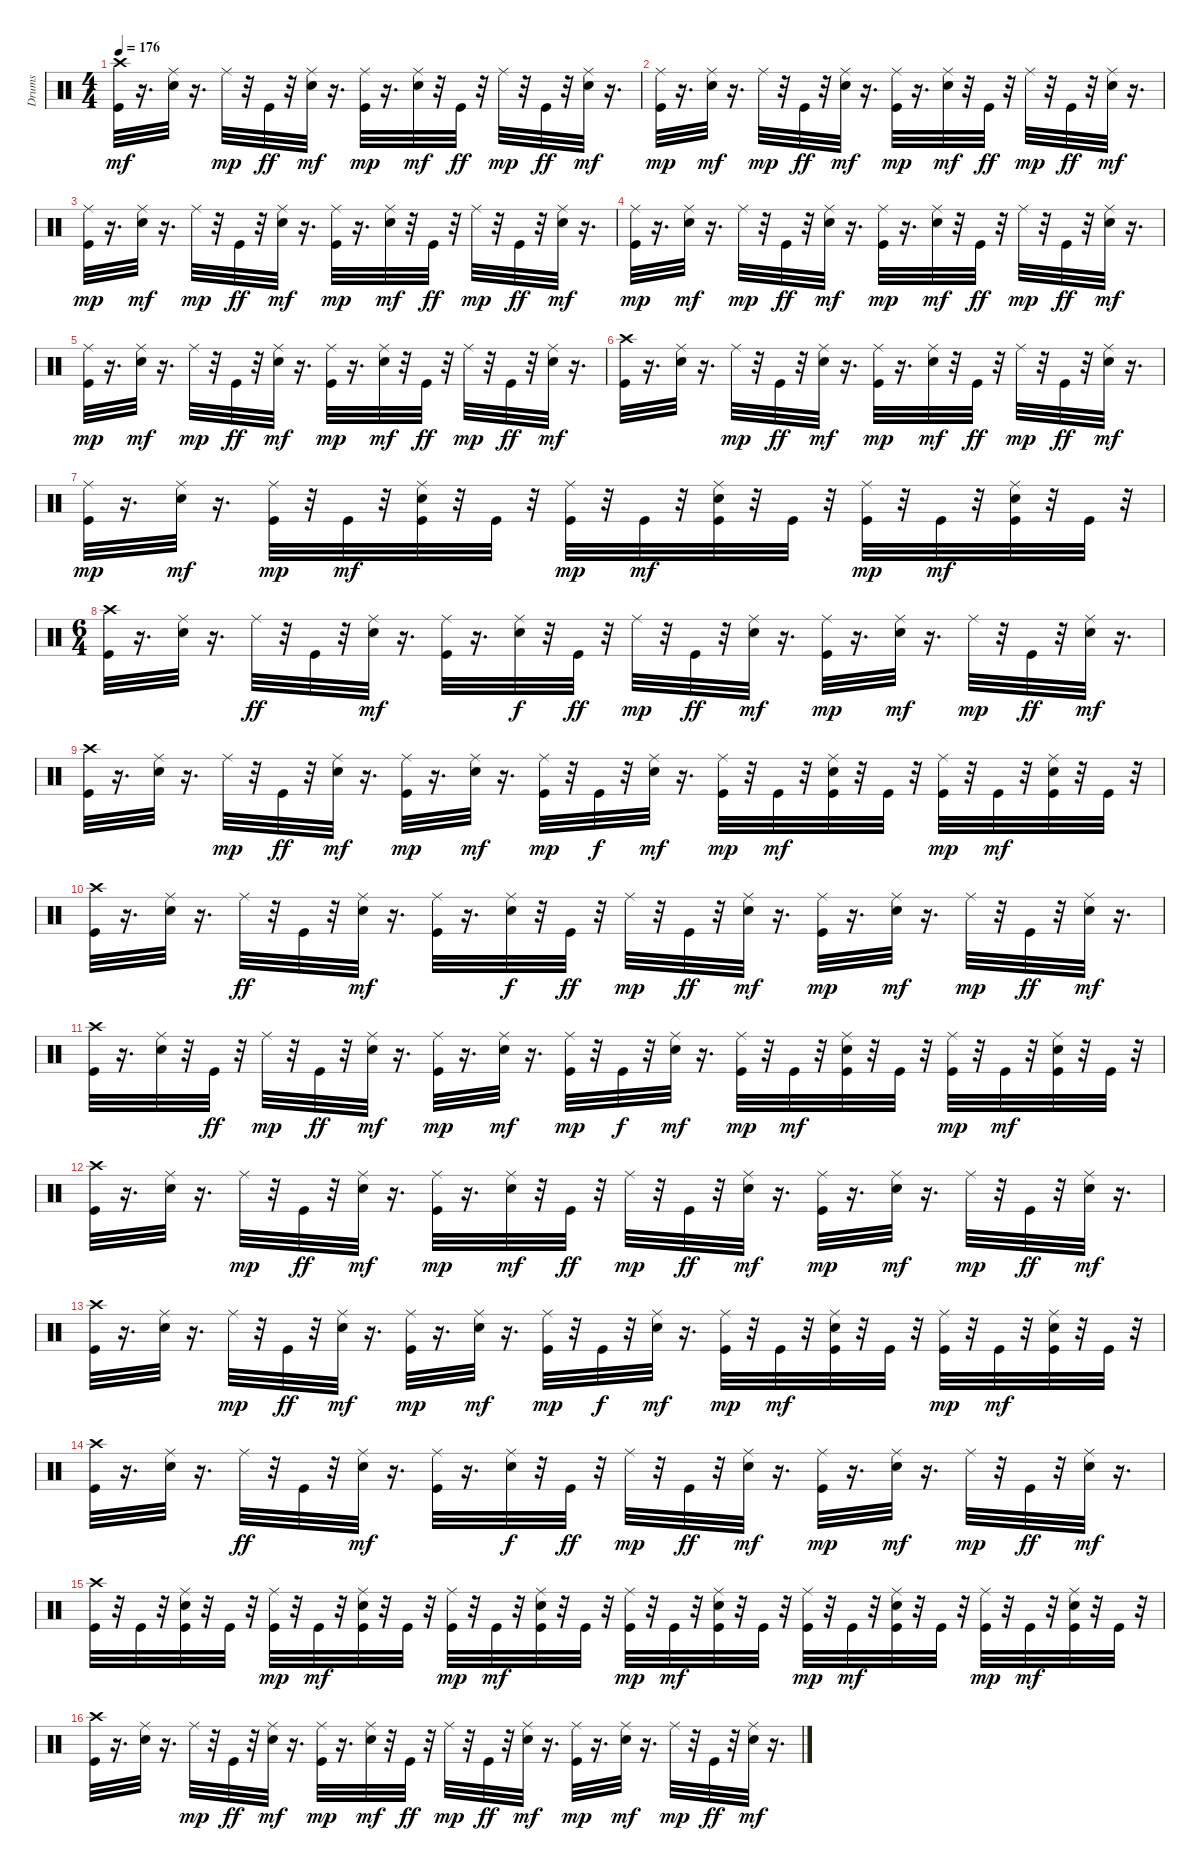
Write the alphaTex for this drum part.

\track ("Drums" "Drums") {instrument percussion}
\staff {score}
\articulation defaults
\ts (4 4)
\tempo 176
\clef neutral
\ks c
("Kick (hit)" "Crash high (hit)").32{dy mf} r.16{d} ("Snare (hit) 2" "Ride (middle)").32 r.16{d} "Ride (middle)".32{dy mp} r.32 "Kick (hit)".32{dy ff} r.32 ("Snare (hit) 2" "Ride (middle)").32{dy mf} r.16{d} ("Kick (hit)" "Ride (middle)").32{dy mp} r.16{d} ("Snare (hit) 2" "Ride (middle)").32{dy mf} r.32 "Kick (hit)".32{dy ff} r.32 "Ride (middle)".32{dy mp} r.32 "Kick (hit)".32{dy ff} r.32 ("Snare (hit) 2" "Ride (middle)").32{dy mf} r.16{d} |
("Kick (hit)" "Ride (middle)").32{dy mp} r.16{d} ("Snare (hit) 2" "Ride (middle)").32{dy mf} r.16{d} "Ride (middle)".32{dy mp} r.32 "Kick (hit)".32{dy ff} r.32 ("Snare (hit) 2" "Ride (middle)").32{dy mf} r.16{d} ("Kick (hit)" "Ride (middle)").32{dy mp} r.16{d} ("Snare (hit) 2" "Ride (middle)").32{dy mf} r.32 "Kick (hit)".32{dy ff} r.32 "Ride (middle)".32{dy mp} r.32 "Kick (hit)".32{dy ff} r.32 ("Snare (hit) 2" "Ride (middle)").32{dy mf} r.16{d} |
("Kick (hit)" "Ride (middle)").32{dy mp} r.16{d} ("Snare (hit) 2" "Ride (middle)").32{dy mf} r.16{d} "Ride (middle)".32{dy mp} r.32 "Kick (hit)".32{dy ff} r.32 ("Snare (hit) 2" "Ride (middle)").32{dy mf} r.16{d} ("Kick (hit)" "Ride (middle)").32{dy mp} r.16{d} ("Snare (hit) 2" "Ride (middle)").32{dy mf} r.32 "Kick (hit)".32{dy ff} r.32 "Ride (middle)".32{dy mp} r.32 "Kick (hit)".32{dy ff} r.32 ("Snare (hit) 2" "Ride (middle)").32{dy mf} r.16{d} |
("Kick (hit)" "Ride (middle)").32{dy mp} r.16{d} ("Snare (hit) 2" "Ride (middle)").32{dy mf} r.16{d} "Ride (middle)".32{dy mp} r.32 "Kick (hit)".32{dy ff} r.32 ("Snare (hit) 2" "Ride (middle)").32{dy mf} r.16{d} ("Kick (hit)" "Ride (middle)").32{dy mp} r.16{d} ("Snare (hit) 2" "Ride (middle)").32{dy mf} r.32 "Kick (hit)".32{dy ff} r.32 "Ride (middle)".32{dy mp} r.32 "Kick (hit)".32{dy ff} r.32 ("Snare (hit) 2" "Ride (middle)").32{dy mf} r.16{d} |
("Kick (hit)" "Ride (middle)").32{dy mp} r.16{d} ("Snare (hit) 2" "Ride (middle)").32{dy mf} r.16{d} "Ride (middle)".32{dy mp} r.32 "Kick (hit)".32{dy ff} r.32 ("Snare (hit) 2" "Ride (middle)").32{dy mf} r.16{d} ("Kick (hit)" "Ride (middle)").32{dy mp} r.16{d} ("Snare (hit) 2" "Ride (middle)").32{dy mf} r.32 "Kick (hit)".32{dy ff} r.32 "Ride (middle)".32{dy mp} r.32 "Kick (hit)".32{dy ff} r.32 ("Snare (hit) 2" "Ride (middle)").32{dy mf} r.16{d} |
("Kick (hit)" "Crash high (hit)").32 r.16{d} ("Snare (hit) 2" "Ride (middle)").32 r.16{d} "Ride (middle)".32{dy mp} r.32 "Kick (hit)".32{dy ff} r.32 ("Snare (hit) 2" "Ride (middle)").32{dy mf} r.16{d} ("Kick (hit)" "Ride (middle)").32{dy mp} r.16{d} ("Snare (hit) 2" "Ride (middle)").32{dy mf} r.32 "Kick (hit)".32{dy ff} r.32 "Ride (middle)".32{dy mp} r.32 "Kick (hit)".32{dy ff} r.32 ("Snare (hit) 2" "Ride (middle)").32{dy mf} r.16{d} |
("Kick (hit)" "Ride (middle)").32{dy mp} r.16{d} ("Snare (hit) 2" "Ride (middle)").32{dy mf} r.16{d} ("Kick (hit)" "Ride (middle)").32{dy mp} r.32 "Kick (hit)".32{dy mf} r.32 ("Kick (hit)" "Snare (hit) 2" "Ride (middle)").32 r.32 "Kick (hit)".32 r.32 ("Kick (hit)" "Ride (middle)").32{dy mp} r.32 "Kick (hit)".32{dy mf} r.32 ("Kick (hit)" "Snare (hit) 2" "Ride (middle)").32 r.32 "Kick (hit)".32 r.32 ("Kick (hit)" "Ride (middle)").32{dy mp} r.32 "Kick (hit)".32{dy mf} r.32 ("Kick (hit)" "Snare (hit) 2" "Ride (middle)").32 r.32 "Kick (hit)".32 r.32 |
\ts (6 4)
("Kick (hit)" "Crash high (hit)").32 r.16{d} ("Snare (hit) 2" "Ride (middle)").32 r.16{d} "Ride (middle)".32{dy ff} r.32 "Kick (hit)".32 r.32 ("Snare (hit) 2" "Ride (middle)").32{dy mf} r.16{d} ("Kick (hit)" "Ride (middle)").32 r.16{d} ("Snare (hit) 2" "Ride (middle)").32{dy f} r.32 "Kick (hit)".32{dy ff} r.32 "Ride (middle)".32{dy mp} r.32 "Kick (hit)".32{dy ff} r.32 ("Snare (hit) 2" "Ride (middle)").32{dy mf} r.16{d} ("Kick (hit)" "Ride (middle)").32{dy mp} r.16{d} ("Snare (hit) 2" "Ride (middle)").32{dy mf} r.16{d} "Ride (middle)".32{dy mp} r.32 "Kick (hit)".32{dy ff} r.32 ("Snare (hit) 2" "Ride (middle)").32{dy mf} r.16{d} |
("Kick (hit)" "Crash high (hit)").32 r.16{d} ("Snare (hit) 2" "Ride (middle)").32 r.16{d} "Ride (middle)".32{dy mp} r.32 "Kick (hit)".32{dy ff} r.32 ("Snare (hit) 2" "Ride (middle)").32{dy mf} r.16{d} ("Kick (hit)" "Ride (middle)").32{dy mp} r.16{d} ("Snare (hit) 2" "Ride (middle)").32{dy mf} r.16{d} ("Kick (hit)" "Ride (middle)").32{dy mp} r.32 "Kick (hit)".32{dy f} r.32 ("Snare (hit) 2" "Ride (middle)").32{dy mf} r.16{d} ("Kick (hit)" "Ride (middle)").32{dy mp} r.32 "Kick (hit)".32{dy mf} r.32 ("Kick (hit)" "Snare (hit) 2" "Ride (middle)").32 r.32 "Kick (hit)".32 r.32 ("Kick (hit)" "Ride (middle)").32{dy mp} r.32 "Kick (hit)".32{dy mf} r.32 ("Kick (hit)" "Snare (hit) 2" "Ride (middle)").32 r.32 "Kick (hit)".32 r.32 |
("Kick (hit)" "Crash high (hit)").32 r.16{d} ("Snare (hit) 2" "Ride (middle)").32 r.16{d} "Ride (middle)".32{dy ff} r.32 "Kick (hit)".32 r.32 ("Snare (hit) 2" "Ride (middle)").32{dy mf} r.16{d} ("Kick (hit)" "Ride (middle)").32 r.16{d} ("Snare (hit) 2" "Ride (middle)").32{dy f} r.32 "Kick (hit)".32{dy ff} r.32 "Ride (middle)".32{dy mp} r.32 "Kick (hit)".32{dy ff} r.32 ("Snare (hit) 2" "Ride (middle)").32{dy mf} r.16{d} ("Kick (hit)" "Ride (middle)").32{dy mp} r.16{d} ("Snare (hit) 2" "Ride (middle)").32{dy mf} r.16{d} "Ride (middle)".32{dy mp} r.32 "Kick (hit)".32{dy ff} r.32 ("Snare (hit) 2" "Ride (middle)").32{dy mf} r.16{d} |
("Kick (hit)" "Crash high (hit)").32 r.16{d} ("Snare (hit) 2" "Ride (middle)").32 r.32 "Kick (hit)".32{dy ff} r.32 "Ride (middle)".32{dy mp} r.32 "Kick (hit)".32{dy ff} r.32 ("Snare (hit) 2" "Ride (middle)").32{dy mf} r.16{d} ("Kick (hit)" "Ride (middle)").32{dy mp} r.16{d} ("Snare (hit) 2" "Ride (middle)").32{dy mf} r.16{d} ("Kick (hit)" "Ride (middle)").32{dy mp} r.32 "Kick (hit)".32{dy f} r.32 ("Snare (hit) 2" "Ride (middle)").32{dy mf} r.16{d} ("Kick (hit)" "Ride (middle)").32{dy mp} r.32 "Kick (hit)".32{dy mf} r.32 ("Kick (hit)" "Snare (hit) 2" "Ride (middle)").32 r.32 "Kick (hit)".32 r.32 ("Kick (hit)" "Ride (middle)").32{dy mp} r.32 "Kick (hit)".32{dy mf} r.32 ("Kick (hit)" "Snare (hit) 2" "Ride (middle)").32 r.32 "Kick (hit)".32 r.32 |
("Kick (hit)" "Crash high (hit)").32 r.16{d} ("Snare (hit) 2" "Ride (middle)").32 r.16{d} "Ride (middle)".32{dy mp} r.32 "Kick (hit)".32{dy ff} r.32 ("Snare (hit) 2" "Ride (middle)").32{dy mf} r.16{d} ("Kick (hit)" "Ride (middle)").32{dy mp} r.16{d} ("Snare (hit) 2" "Ride (middle)").32{dy mf} r.32 "Kick (hit)".32{dy ff} r.32 "Ride (middle)".32{dy mp} r.32 "Kick (hit)".32{dy ff} r.32 ("Snare (hit) 2" "Ride (middle)").32{dy mf} r.16{d} ("Kick (hit)" "Ride (middle)").32{dy mp} r.16{d} ("Snare (hit) 2" "Ride (middle)").32{dy mf} r.16{d} "Ride (middle)".32{dy mp} r.32 "Kick (hit)".32{dy ff} r.32 ("Snare (hit) 2" "Ride (middle)").32{dy mf} r.16{d} |
("Kick (hit)" "Crash high (hit)").32 r.16{d} ("Snare (hit) 2" "Ride (middle)").32 r.16{d} "Ride (middle)".32{dy mp} r.32 "Kick (hit)".32{dy ff} r.32 ("Snare (hit) 2" "Ride (middle)").32{dy mf} r.16{d} ("Kick (hit)" "Ride (middle)").32{dy mp} r.16{d} ("Snare (hit) 2" "Ride (middle)").32{dy mf} r.16{d} ("Kick (hit)" "Ride (middle)").32{dy mp} r.32 "Kick (hit)".32{dy f} r.32 ("Snare (hit) 2" "Ride (middle)").32{dy mf} r.16{d} ("Kick (hit)" "Ride (middle)").32{dy mp} r.32 "Kick (hit)".32{dy mf} r.32 ("Kick (hit)" "Snare (hit) 2" "Ride (middle)").32 r.32 "Kick (hit)".32 r.32 ("Kick (hit)" "Ride (middle)").32{dy mp} r.32 "Kick (hit)".32{dy mf} r.32 ("Kick (hit)" "Snare (hit) 2" "Ride (middle)").32 r.32 "Kick (hit)".32 r.32 |
("Kick (hit)" "Crash high (hit)").32 r.16{d} ("Snare (hit) 2" "Ride (middle)").32 r.16{d} "Ride (middle)".32{dy ff} r.32 "Kick (hit)".32 r.32 ("Snare (hit) 2" "Ride (middle)").32{dy mf} r.16{d} ("Kick (hit)" "Ride (middle)").32 r.16{d} ("Snare (hit) 2" "Ride (middle)").32{dy f} r.32 "Kick (hit)".32{dy ff} r.32 "Ride (middle)".32{dy mp} r.32 "Kick (hit)".32{dy ff} r.32 ("Snare (hit) 2" "Ride (middle)").32{dy mf} r.16{d} ("Kick (hit)" "Ride (middle)").32{dy mp} r.16{d} ("Snare (hit) 2" "Ride (middle)").32{dy mf} r.16{d} "Ride (middle)".32{dy mp} r.32 "Kick (hit)".32{dy ff} r.32 ("Snare (hit) 2" "Ride (middle)").32{dy mf} r.16{d} |
("Kick (hit)" "Crash high (hit)").32 r.32 "Kick (hit)".32 r.32 ("Kick (hit)" "Snare (hit) 2" "Ride (middle)").32 r.32 "Kick (hit)".32 r.32 ("Kick (hit)" "Ride (middle)").32{dy mp} r.32 "Kick (hit)".32{dy mf} r.32 ("Kick (hit)" "Snare (hit) 2" "Ride (middle)").32 r.32 "Kick (hit)".32 r.32 ("Kick (hit)" "Ride (middle)").32{dy mp} r.32 "Kick (hit)".32{dy mf} r.32 ("Kick (hit)" "Snare (hit) 2" "Ride (middle)").32 r.32 "Kick (hit)".32 r.32 ("Kick (hit)" "Ride (middle)").32{dy mp} r.32 "Kick (hit)".32{dy mf} r.32 ("Kick (hit)" "Snare (hit) 2" "Ride (middle)").32 r.32 "Kick (hit)".32 r.32 ("Kick (hit)" "Ride (middle)").32{dy mp} r.32 "Kick (hit)".32{dy mf} r.32 ("Kick (hit)" "Snare (hit) 2" "Ride (middle)").32 r.32 "Kick (hit)".32 r.32 ("Kick (hit)" "Ride (middle)").32{dy mp} r.32 "Kick (hit)".32{dy mf} r.32 ("Kick (hit)" "Snare (hit) 2" "Ride (middle)").32 r.32 "Kick (hit)".32 r.32 |
("Kick (hit)" "Crash high (hit)").32 r.16{d} ("Snare (hit) 2" "Ride (middle)").32 r.16{d} "Ride (middle)".32{dy mp} r.32 "Kick (hit)".32{dy ff} r.32 ("Snare (hit) 2" "Ride (middle)").32{dy mf} r.16{d} ("Kick (hit)" "Ride (middle)").32{dy mp} r.16{d} ("Snare (hit) 2" "Ride (middle)").32{dy mf} r.32 "Kick (hit)".32{dy ff} r.32 "Ride (middle)".32{dy mp} r.32 "Kick (hit)".32{dy ff} r.32 ("Snare (hit) 2" "Ride (middle)").32{dy mf} r.16{d} ("Kick (hit)" "Ride (middle)").32{dy mp} r.16{d} ("Snare (hit) 2" "Ride (middle)").32{dy mf} r.16{d} "Ride (middle)".32{dy mp} r.32 "Kick (hit)".32{dy ff} r.32 ("Snare (hit) 2" "Ride (middle)").32{dy mf} r.16{d}
